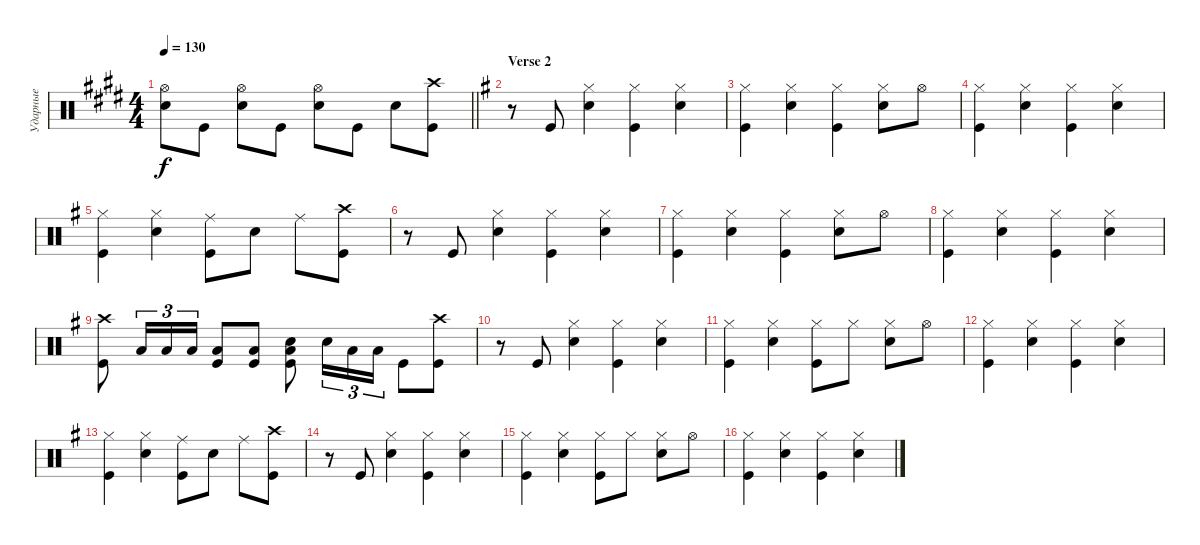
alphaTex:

\track ("Ударные" "Ударные") {instrument percussion}
\staff {score}
\articulation defaults
\ts (4 4)
\tempo 130
\clef neutral
\barLineRight lightlight
\ks c#minor
("Snare (hit) 2" "Hi-Hat (open)").8{dy f} "Kick (hit)".8 ("Snare (hit) 2" "Hi-Hat (open)").8 "Kick (hit)".8 ("Snare (hit) 2" "Hi-Hat (open)").8 "Kick (hit)".8 "Snare (hit) 2".8 ("Kick (hit)" "Crash high (hit)").8 |
\section ("" "Verse 2")
\ks eminor
r.8 "Kick (hit)".8 ("Snare (hit) 2" "Hi-Hat (closed)").4 ("Kick (hit)" "Hi-Hat (closed)").4 ("Snare (hit) 2" "Hi-Hat (closed)").4 |
("Kick (hit)" "Hi-Hat (closed)").4 ("Snare (hit) 2" "Hi-Hat (closed)").4 ("Kick (hit)" "Hi-Hat (closed)").4 ("Snare (hit) 2" "Hi-Hat (closed)").8 "Hi-Hat (open)".8 |
("Kick (hit)" "Hi-Hat (closed)").4 ("Snare (hit) 2" "Hi-Hat (closed)").4 ("Kick (hit)" "Hi-Hat (closed)").4 ("Snare (hit) 2" "Hi-Hat (closed)").4 |
("Kick (hit)" "Hi-Hat (closed)").4 ("Snare (hit) 2" "Hi-Hat (closed)").4 ("Kick (hit)" "Ride (middle)").8 "Snare (hit) 2".8 "Ride (middle)".8 ("Kick (hit)" "Crash high (hit)").8 |
r.8 "Kick (hit)".8 ("Snare (hit) 2" "Hi-Hat (closed)").4 ("Kick (hit)" "Hi-Hat (closed)").4 ("Snare (hit) 2" "Hi-Hat (closed)").4 |
("Kick (hit)" "Hi-Hat (closed)").4 ("Snare (hit) 2" "Hi-Hat (closed)").4 ("Kick (hit)" "Hi-Hat (closed)").4 ("Snare (hit) 2" "Hi-Hat (closed)").8 "Hi-Hat (open)".8 |
("Kick (hit)" "Hi-Hat (closed)").4 ("Snare (hit) 2" "Hi-Hat (closed)").4 ("Kick (hit)" "Hi-Hat (closed)").4 ("Snare (hit) 2" "Hi-Hat (closed)").4 |
("Kick (hit)" "Crash high (hit)").8 "Low Tom (hit)".16{tu (3 2)} "Low Tom (hit)".16{tu (3 2)} "Low Tom (hit)".16{tu (3 2)} ("Kick (hit)" "Low Tom (hit)").8 ("Low Tom (hit)" "Kick (hit)").8 ("Kick (hit)" "Snare (hit) 2" "Low Tom (hit)").8{bd 120} "Snare (hit) 2".16{tu (3 2)} "Low Tom (hit)".16{tu (3 2)} "Low Tom (hit)".16{tu (3 2)} "Kick (hit)".8 ("Kick (hit)" "Crash high (hit)").8 |
r.8 "Kick (hit)".8 ("Snare (hit) 2" "Hi-Hat (closed)").4 ("Kick (hit)" "Hi-Hat (closed)").4 ("Snare (hit) 2" "Hi-Hat (closed)").4 |
("Kick (hit)" "Hi-Hat (closed)").4 ("Snare (hit) 2" "Hi-Hat (closed)").4 ("Kick (hit)" "Hi-Hat (closed)").8 "Hi-Hat (closed)".8 ("Snare (hit) 2" "Hi-Hat (closed)").8 "Hi-Hat (open)".8 |
("Kick (hit)" "Hi-Hat (closed)").4 ("Snare (hit) 2" "Hi-Hat (closed)").4 ("Kick (hit)" "Hi-Hat (closed)").4 ("Snare (hit) 2" "Hi-Hat (closed)").4 |
("Kick (hit)" "Hi-Hat (closed)").4 ("Snare (hit) 2" "Hi-Hat (closed)").4 ("Kick (hit)" "Ride (middle)").8 "Snare (hit) 2".8 "Ride (middle)".8 ("Kick (hit)" "Crash high (hit)").8 |
r.8 "Kick (hit)".8 ("Snare (hit) 2" "Hi-Hat (closed)").4 ("Kick (hit)" "Hi-Hat (closed)").4 ("Snare (hit) 2" "Hi-Hat (closed)").4 |
("Kick (hit)" "Hi-Hat (closed)").4 ("Snare (hit) 2" "Hi-Hat (closed)").4 ("Kick (hit)" "Hi-Hat (closed)").8 "Hi-Hat (closed)".8 ("Snare (hit) 2" "Hi-Hat (closed)").8 "Hi-Hat (open)".8 |
("Kick (hit)" "Hi-Hat (closed)").4 ("Snare (hit) 2" "Hi-Hat (closed)").4 ("Kick (hit)" "Hi-Hat (closed)").4 ("Snare (hit) 2" "Hi-Hat (closed)").4
